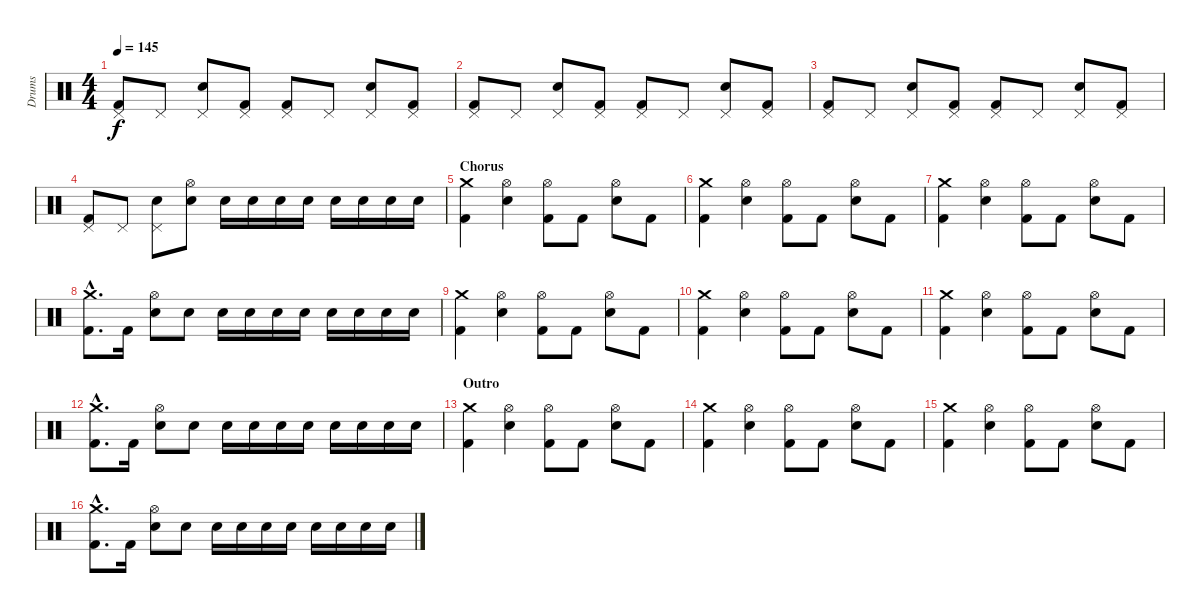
\track ("Drums" "Drums") {instrument percussion}
\staff {score}
\articulation defaults
\ts (4 4)
\tempo 145
\clef neutral
\ks c
("Pedal Hi-Hat (hit)" "Kick (hit) 2").8{dy f} "Pedal Hi-Hat (hit)".8 ("Pedal Hi-Hat (hit)" "Electric Snare (hit)").8 ("Pedal Hi-Hat (hit)" "Kick (hit) 2").8 ("Pedal Hi-Hat (hit)" "Kick (hit) 2").8 "Pedal Hi-Hat (hit)".8 ("Pedal Hi-Hat (hit)" "Electric Snare (hit)").8 ("Pedal Hi-Hat (hit)" "Kick (hit) 2").8 |
("Pedal Hi-Hat (hit)" "Kick (hit) 2").8 "Pedal Hi-Hat (hit)".8 ("Pedal Hi-Hat (hit)" "Electric Snare (hit)").8 ("Pedal Hi-Hat (hit)" "Kick (hit) 2").8 ("Pedal Hi-Hat (hit)" "Kick (hit) 2").8 "Pedal Hi-Hat (hit)".8 ("Pedal Hi-Hat (hit)" "Electric Snare (hit)").8 ("Pedal Hi-Hat (hit)" "Kick (hit) 2").8 |
("Pedal Hi-Hat (hit)" "Kick (hit) 2").8 "Pedal Hi-Hat (hit)".8 ("Pedal Hi-Hat (hit)" "Electric Snare (hit)").8 ("Pedal Hi-Hat (hit)" "Kick (hit) 2").8 ("Pedal Hi-Hat (hit)" "Kick (hit) 2").8 "Pedal Hi-Hat (hit)".8 ("Pedal Hi-Hat (hit)" "Electric Snare (hit)").8 ("Pedal Hi-Hat (hit)" "Kick (hit) 2").8 |
("Pedal Hi-Hat (hit)" "Kick (hit) 2").8 "Pedal Hi-Hat (hit)".8 ("Pedal Hi-Hat (hit)" "Electric Snare (hit)").8 ("Hi-Hat (open)" "Electric Snare (hit)").8 "Electric Snare (hit)".16 "Electric Snare (hit)".16 "Electric Snare (hit)".16 "Electric Snare (hit)".16 "Electric Snare (hit)".16 "Electric Snare (hit)".16 "Electric Snare (hit)".16 "Electric Snare (hit)".16 |
\section ("" "Chorus")
("Crash medium (hit)" "Kick (hit) 2").4 ("Hi-Hat (open)" "Electric Snare (hit)").4 ("Hi-Hat (open)" "Kick (hit) 2").8 "Kick (hit) 2".8 ("Hi-Hat (open)" "Electric Snare (hit)").8 "Kick (hit) 2".8 |
("Crash medium (hit)" "Kick (hit) 2").4 ("Hi-Hat (open)" "Electric Snare (hit)").4 ("Hi-Hat (open)" "Kick (hit) 2").8 "Kick (hit) 2".8 ("Hi-Hat (open)" "Electric Snare (hit)").8 "Kick (hit) 2".8 |
("Crash medium (hit)" "Kick (hit) 2").4 ("Hi-Hat (open)" "Electric Snare (hit)").4 ("Hi-Hat (open)" "Kick (hit) 2").8 "Kick (hit) 2".8 ("Hi-Hat (open)" "Electric Snare (hit)").8 "Kick (hit) 2".8 |
("Crash medium (hit)"{hac} "Kick (hit) 2"{hac}).8{d} "Kick (hit) 2".16 ("Hi-Hat (open)" "Electric Snare (hit)").8 "Electric Snare (hit)".8 "Electric Snare (hit)".16 "Electric Snare (hit)".16 "Electric Snare (hit)".16 "Electric Snare (hit)".16 "Electric Snare (hit)".16 "Electric Snare (hit)".16 "Electric Snare (hit)".16 "Electric Snare (hit)".16 |
("Crash medium (hit)" "Kick (hit) 2").4 ("Hi-Hat (open)" "Electric Snare (hit)").4 ("Hi-Hat (open)" "Kick (hit) 2").8 "Kick (hit) 2".8 ("Hi-Hat (open)" "Electric Snare (hit)").8 "Kick (hit) 2".8 |
("Crash medium (hit)" "Kick (hit) 2").4 ("Hi-Hat (open)" "Electric Snare (hit)").4 ("Hi-Hat (open)" "Kick (hit) 2").8 "Kick (hit) 2".8 ("Hi-Hat (open)" "Electric Snare (hit)").8 "Kick (hit) 2".8 |
("Crash medium (hit)" "Kick (hit) 2").4 ("Hi-Hat (open)" "Electric Snare (hit)").4 ("Hi-Hat (open)" "Kick (hit) 2").8 "Kick (hit) 2".8 ("Hi-Hat (open)" "Electric Snare (hit)").8 "Kick (hit) 2".8 |
("Crash medium (hit)"{hac} "Kick (hit) 2"{hac}).8{d} "Kick (hit) 2".16 ("Hi-Hat (open)" "Electric Snare (hit)").8 "Electric Snare (hit)".8 "Electric Snare (hit)".16 "Electric Snare (hit)".16 "Electric Snare (hit)".16 "Electric Snare (hit)".16 "Electric Snare (hit)".16 "Electric Snare (hit)".16 "Electric Snare (hit)".16 "Electric Snare (hit)".16 |
\section ("" "Outro")
("Crash medium (hit)" "Kick (hit) 2").4 ("Hi-Hat (open)" "Electric Snare (hit)").4 ("Hi-Hat (open)" "Kick (hit) 2").8 "Kick (hit) 2".8 ("Hi-Hat (open)" "Electric Snare (hit)").8 "Kick (hit) 2".8 |
("Crash medium (hit)" "Kick (hit) 2").4 ("Hi-Hat (open)" "Electric Snare (hit)").4 ("Hi-Hat (open)" "Kick (hit) 2").8 "Kick (hit) 2".8 ("Hi-Hat (open)" "Electric Snare (hit)").8 "Kick (hit) 2".8 |
("Crash medium (hit)" "Kick (hit) 2").4 ("Hi-Hat (open)" "Electric Snare (hit)").4 ("Hi-Hat (open)" "Kick (hit) 2").8 "Kick (hit) 2".8 ("Hi-Hat (open)" "Electric Snare (hit)").8 "Kick (hit) 2".8 |
("Crash medium (hit)"{hac} "Kick (hit) 2"{hac}).8{d} "Kick (hit) 2".16 ("Hi-Hat (open)" "Electric Snare (hit)").8 "Electric Snare (hit)".8 "Electric Snare (hit)".16 "Electric Snare (hit)".16 "Electric Snare (hit)".16 "Electric Snare (hit)".16 "Electric Snare (hit)".16 "Electric Snare (hit)".16 "Electric Snare (hit)".16 "Electric Snare (hit)".16
